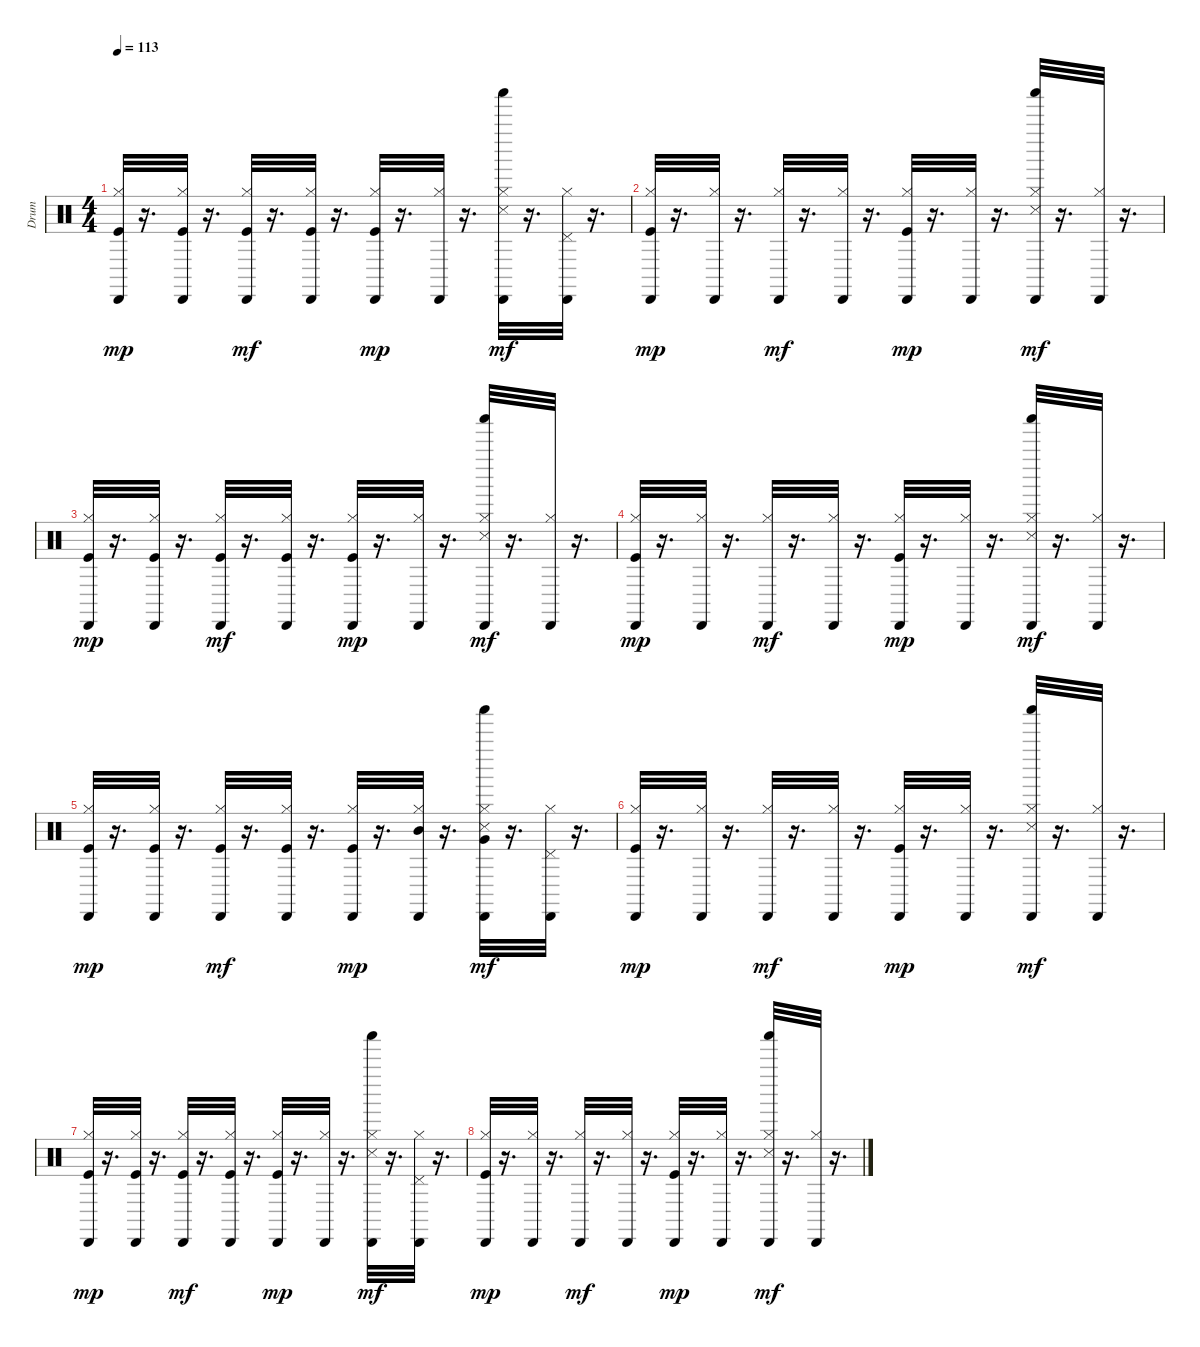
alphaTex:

\track ("Drum" "Drum") {instrument percussion}
\staff {score}
\articulation defaults
\ts (4 4)
\tempo 113
\clef neutral
\ks c
("Hi-Hat (closed)" "Kick (hit)" "Cabasa (hit)").32{dy mp} r.16{d} ("Hi-Hat (closed)" "Kick (hit)" "Cabasa (hit)").32 r.16{d} ("Hi-Hat (closed)" "Kick (hit)" "Cabasa (hit)").32{dy mf} r.16{d} ("Hi-Hat (closed)" "Kick (hit)" "Cabasa (hit)").32 r.16{d} ("Hi-Hat (closed)" "Kick (hit)" "Cabasa (hit)").32{dy mp} r.16{d} ("Hi-Hat (closed)" "Cabasa (hit)").32 r.16{d} ("Hi-Hat (closed)" "Shaker (hit)" "Snare (side stick) 3" "Cabasa (hit)").32{dy mf} r.16{d} ("Hi-Hat (closed)" "Pedal Hi-Hat (hit)" "Cabasa (hit)").32 r.16{d} |
("Hi-Hat (closed)" "Kick (hit)" "Cabasa (hit)").32{dy mp} r.16{d} ("Hi-Hat (closed)" "Cabasa (hit)").32 r.16{d} ("Hi-Hat (closed)" "Cabasa (hit)").32{dy mf} r.16{d} ("Hi-Hat (closed)" "Cabasa (hit)").32 r.16{d} ("Hi-Hat (closed)" "Kick (hit)" "Cabasa (hit)").32{dy mp} r.16{d} ("Hi-Hat (closed)" "Cabasa (hit)").32 r.16{d} ("Hi-Hat (closed)" "Shaker (hit)" "Snare (side stick) 3" "Cabasa (hit)").32{dy mf} r.16{d} ("Hi-Hat (closed)" "Cabasa (hit)").32 r.16{d} |
("Hi-Hat (closed)" "Kick (hit)" "Cabasa (hit)").32{dy mp} r.16{d} ("Hi-Hat (closed)" "Kick (hit)" "Cabasa (hit)").32 r.16{d} ("Hi-Hat (closed)" "Kick (hit)" "Cabasa (hit)").32{dy mf} r.16{d} ("Hi-Hat (closed)" "Kick (hit)" "Cabasa (hit)").32 r.16{d} ("Hi-Hat (closed)" "Kick (hit)" "Cabasa (hit)").32{dy mp} r.16{d} ("Hi-Hat (closed)" "Cabasa (hit)").32 r.16{d} ("Hi-Hat (closed)" "Shaker (hit)" "Snare (side stick) 3" "Cabasa (hit)").32{dy mf} r.16{d} ("Hi-Hat (closed)" "Cabasa (hit)").32 r.16{d} |
("Hi-Hat (closed)" "Kick (hit)" "Cabasa (hit)").32{dy mp} r.16{d} ("Hi-Hat (closed)" "Cabasa (hit)").32 r.16{d} ("Hi-Hat (closed)" "Cabasa (hit)").32{dy mf} r.16{d} ("Hi-Hat (closed)" "Cabasa (hit)").32 r.16{d} ("Hi-Hat (closed)" "Kick (hit)" "Cabasa (hit)").32{dy mp} r.16{d} ("Hi-Hat (closed)" "Cabasa (hit)").32 r.16{d} ("Hi-Hat (closed)" "Shaker (hit)" "Snare (side stick) 3" "Cabasa (hit)").32{dy mf} r.16{d} ("Hi-Hat (closed)" "Cabasa (hit)").32 r.16{d} |
("Hi-Hat (closed)" "Kick (hit)" "Cabasa (hit)").32{dy mp} r.16{d} ("Hi-Hat (closed)" "Kick (hit)" "Cabasa (hit)").32 r.16{d} ("Hi-Hat (closed)" "Kick (hit)" "Cabasa (hit)").32{dy mf} r.16{d} ("Hi-Hat (closed)" "Kick (hit)" "Cabasa (hit)").32 r.16{d} ("Hi-Hat (closed)" "Kick (hit)" "Cabasa (hit)").32{dy mp} r.16{d} ("Hi-Hat (closed)" "Mid Tom (hit)" "Cabasa (hit)").32 r.16{d} ("Hi-Hat (closed)" "Very Low Tom (hit)" "Shaker (hit)" "Snare (side stick) 3" "Cabasa (hit)").32{dy mf} r.16{d} ("Hi-Hat (closed)" "Pedal Hi-Hat (hit)" "Cabasa (hit)").32 r.16{d} |
("Hi-Hat (closed)" "Kick (hit)" "Cabasa (hit)").32{dy mp} r.16{d} ("Hi-Hat (closed)" "Cabasa (hit)").32 r.16{d} ("Hi-Hat (closed)" "Cabasa (hit)").32{dy mf} r.16{d} ("Hi-Hat (closed)" "Cabasa (hit)").32 r.16{d} ("Hi-Hat (closed)" "Kick (hit)" "Cabasa (hit)").32{dy mp} r.16{d} ("Hi-Hat (closed)" "Cabasa (hit)").32 r.16{d} ("Hi-Hat (closed)" "Shaker (hit)" "Snare (side stick) 3" "Cabasa (hit)").32{dy mf} r.16{d} ("Hi-Hat (closed)" "Cabasa (hit)").32 r.16{d} |
("Hi-Hat (closed)" "Kick (hit)" "Cabasa (hit)").32{dy mp} r.16{d} ("Hi-Hat (closed)" "Kick (hit)" "Cabasa (hit)").32 r.16{d} ("Hi-Hat (closed)" "Kick (hit)" "Cabasa (hit)").32{dy mf} r.16{d} ("Hi-Hat (closed)" "Kick (hit)" "Cabasa (hit)").32 r.16{d} ("Hi-Hat (closed)" "Kick (hit)" "Cabasa (hit)").32{dy mp} r.16{d} ("Hi-Hat (closed)" "Cabasa (hit)").32 r.16{d} ("Hi-Hat (closed)" "Shaker (hit)" "Snare (side stick) 3" "Cabasa (hit)").32{dy mf} r.16{d} ("Hi-Hat (closed)" "Pedal Hi-Hat (hit)" "Cabasa (hit)").32 r.16{d} |
("Hi-Hat (closed)" "Kick (hit)" "Cabasa (hit)").32{dy mp} r.16{d} ("Hi-Hat (closed)" "Cabasa (hit)").32 r.16{d} ("Hi-Hat (closed)" "Cabasa (hit)").32{dy mf} r.16{d} ("Hi-Hat (closed)" "Cabasa (hit)").32 r.16{d} ("Hi-Hat (closed)" "Kick (hit)" "Cabasa (hit)").32{dy mp} r.16{d} ("Hi-Hat (closed)" "Cabasa (hit)").32 r.16{d} ("Hi-Hat (closed)" "Shaker (hit)" "Snare (side stick) 3" "Cabasa (hit)").32{dy mf} r.16{d} ("Hi-Hat (closed)" "Cabasa (hit)").32 r.16{d}
